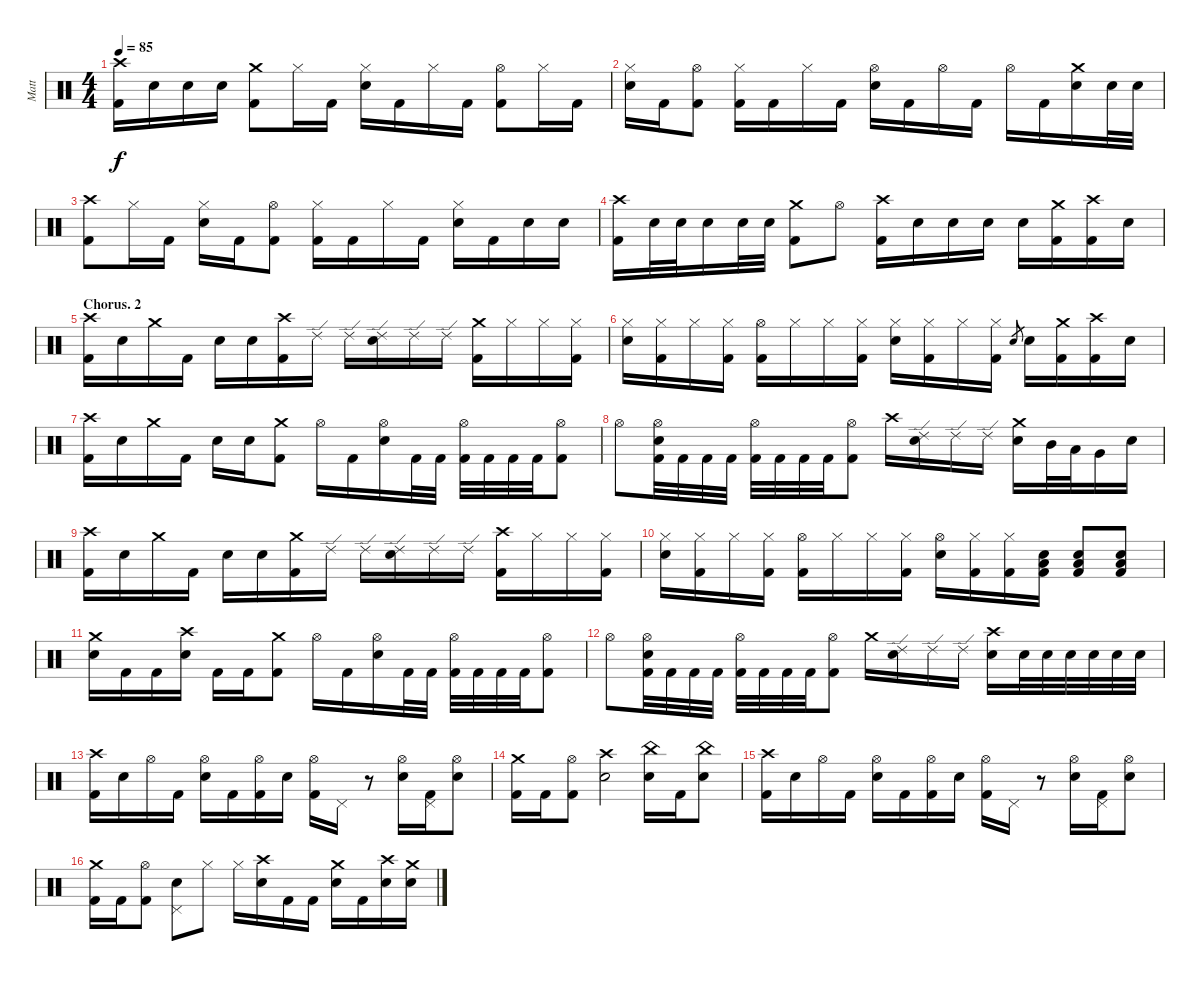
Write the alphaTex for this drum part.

\track ("Matt" "Matt") {instrument percussion}
\staff {score}
\articulation defaults
\ts (4 4)
\tempo 85
\clef neutral
\ks c
("Crash high (hit)" "Kick (hit) 2").16{dy f} "Electric Snare (hit)".16 "Electric Snare (hit)".16 "Electric Snare (hit)".16 ("Crash medium (hit)" "Kick (hit) 2").8 "Hi-Hat (closed)".16 "Kick (hit) 2".16 ("Hi-Hat (closed)" "Electric Snare (hit)").16 "Kick (hit) 2".16 "Hi-Hat (closed)".16 "Kick (hit) 2".16 ("Hi-Hat (open)" "Kick (hit) 2").8 "Hi-Hat (closed)".16 "Kick (hit) 2".16 |
("Hi-Hat (closed)" "Electric Snare (hit)").16 "Kick (hit) 2".16 ("Hi-Hat (open)" "Kick (hit) 2").8 ("Hi-Hat (closed)" "Kick (hit) 2").16 "Kick (hit) 2".16 "Hi-Hat (closed)".16 "Kick (hit) 2".16 ("Hi-Hat (open)" "Electric Snare (hit)").16 "Kick (hit) 2".16 "Hi-Hat (open)".16 "Kick (hit) 2".16 "Hi-Hat (open)".16 "Kick (hit) 2".16 ("Crash medium (hit)" "Electric Snare (hit)").16 "Electric Snare (hit)".32 "Electric Snare (hit)".32 |
("Crash high (hit)" "Kick (hit) 2").8 "Hi-Hat (closed)".16 "Kick (hit) 2".16 ("Hi-Hat (closed)" "Electric Snare (hit)").16 "Kick (hit) 2".16 ("Hi-Hat (open)" "Kick (hit) 2").8 ("Hi-Hat (closed)" "Kick (hit) 2").16 "Kick (hit) 2".16 "Hi-Hat (closed)".16 "Kick (hit) 2".16 ("Hi-Hat (closed)" "Electric Snare (hit)").16 "Kick (hit) 2".16 "Electric Snare (hit)".16 "Electric Snare (hit)".16 |
("Crash high (hit)" "Kick (hit) 2").16 "Electric Snare (hit)".32 "Electric Snare (hit)".32 "Electric Snare (hit)".16 "Electric Snare (hit)".32 "Electric Snare (hit)".32 ("Crash medium (hit)" "Kick (hit) 2").8 "Hi-Hat (open)".8 ("Crash high (hit)" "Kick (hit) 2").16 "Electric Snare (hit)".16 "Electric Snare (hit)".16 "Electric Snare (hit)".16 "Electric Snare (hit)".16 ("Crash medium (hit)" "Kick (hit) 2").16 ("Crash high (hit)" "Kick (hit) 2").16 "Electric Snare (hit)".16 |
\section ("" "Chorus. 2")
("Crash high (hit)" "Kick (hit) 2").16 "Electric Snare (hit)".16 "Crash medium (hit)".16 "Kick (hit) 2".16 "Electric Snare (hit)".16 "Electric Snare (hit)".16 ("Crash high (hit)" "Kick (hit) 2").16 "Ride (edge) 2".16 "Ride (edge) 2".16 ("Ride (edge) 2" "Electric Snare (hit)").16 "Ride (edge) 2".16 "Ride (edge) 2".16 ("Crash medium (hit)" "Kick (hit) 2").16 "Hi-Hat (closed)".16 "Hi-Hat (closed)".16 ("Hi-Hat (closed)" "Kick (hit) 2").16 |
("Hi-Hat (closed)" "Electric Snare (hit)").16 ("Hi-Hat (closed)" "Kick (hit) 2").16 "Hi-Hat (closed)".16 ("Hi-Hat (closed)" "Kick (hit) 2").16 ("Hi-Hat (open)" "Kick (hit) 2").16 "Hi-Hat (closed)".16 "Hi-Hat (closed)".16 ("Hi-Hat (closed)" "Kick (hit) 2").16 ("Hi-Hat (closed)" "Electric Snare (hit)").16 ("Hi-Hat (closed)" "Kick (hit) 2").16 "Hi-Hat (closed)".16 ("Hi-Hat (closed)" "Kick (hit) 2").16 "Electric Snare (hit)".8{gr} "Electric Snare (hit)".16 ("Crash medium (hit)" "Kick (hit) 2").16 ("Crash high (hit)" "Kick (hit) 2").16 "Electric Snare (hit)".16 |
("Crash high (hit)" "Kick (hit) 2").16 "Electric Snare (hit)".16 "Crash medium (hit)".16 "Kick (hit) 2".16 "Electric Snare (hit)".16 "Electric Snare (hit)".16 ("Crash medium (hit)" "Kick (hit) 2").8 "Hi-Hat (open)".16 "Kick (hit) 2".16 ("Hi-Hat (open)" "Electric Snare (hit)").16 "Kick (hit) 2".32 "Kick (hit) 2".32 ("Hi-Hat (open)" "Kick (hit) 2").32 "Kick (hit) 2".32 "Kick (hit) 2".32 "Kick (hit) 2".32 ("Hi-Hat (open)" "Kick (hit) 2").8 |
"Hi-Hat (open)".8 ("Hi-Hat (open)" "Electric Snare (hit)" "Kick (hit) 2").32 "Kick (hit) 2".32 "Kick (hit) 2".32 "Kick (hit) 2".32 ("Hi-Hat (open)" "Kick (hit) 2").32 "Kick (hit) 2".32 "Kick (hit) 2".32 "Kick (hit) 2".32 ("Hi-Hat (open)" "Kick (hit) 2").8 "Crash high (hit)".16 ("Ride (edge) 2" "Electric Snare (hit)").16 "Ride (edge) 2".16 "Ride (edge) 2".16 ("Crash medium (hit)" "Electric Snare (hit)").16 "Mid Tom (hit)".32 "Low Tom (hit)".32 "Very Low Tom (hit)".16 "Electric Snare (hit)".16 |
("Crash high (hit)" "Kick (hit) 2").16 "Electric Snare (hit)".16 "Crash medium (hit)".16 "Kick (hit) 2".16 "Electric Snare (hit)".16 "Electric Snare (hit)".16 ("Crash medium (hit)" "Kick (hit) 2").16 "Ride (edge) 2".16 "Ride (edge) 2".16 ("Ride (edge) 2" "Electric Snare (hit)").16 "Ride (edge) 2".16 "Ride (edge) 2".16 ("Crash high (hit)" "Kick (hit) 2").16 "Hi-Hat (closed)".16 "Hi-Hat (closed)".16 ("Hi-Hat (closed)" "Kick (hit) 2").16 |
("Hi-Hat (closed)" "Electric Snare (hit)").16 ("Hi-Hat (closed)" "Kick (hit) 2").16 "Hi-Hat (closed)".16 ("Hi-Hat (closed)" "Kick (hit) 2").16 ("Hi-Hat (open)" "Kick (hit) 2").16 "Hi-Hat (closed)".16 "Hi-Hat (closed)".16 ("Hi-Hat (closed)" "Kick (hit) 2").16 ("Hi-Hat (open)" "Electric Snare (hit)").16 ("Hi-Hat (closed)" "Kick (hit) 2").16 ("Hi-Hat (closed)" "Kick (hit) 2").16 ("Electric Snare (hit)" "Low Tom (hit)" "Kick (hit) 2").16 ("Electric Snare (hit)" "Low Tom (hit)" "Kick (hit) 2").8 ("Electric Snare (hit)" "Low Tom (hit)" "Kick (hit) 2").8 |
("Crash medium (hit)" "Electric Snare (hit)").16 "Kick (hit) 2".16 "Kick (hit) 2".16 ("Crash high (hit)" "Electric Snare (hit)").16 "Kick (hit) 2".16 "Kick (hit) 2".16 ("Crash medium (hit)" "Kick (hit) 2").8 "Hi-Hat (open)".16 "Kick (hit) 2".16 ("Hi-Hat (open)" "Electric Snare (hit)").16 "Kick (hit) 2".32 "Kick (hit) 2".32 ("Hi-Hat (open)" "Kick (hit) 2").32 "Kick (hit) 2".32 "Kick (hit) 2".32 "Kick (hit) 2".32 ("Hi-Hat (open)" "Kick (hit) 2").8 |
"Hi-Hat (open)".8 ("Hi-Hat (open)" "Electric Snare (hit)" "Kick (hit) 2").32 "Kick (hit) 2".32 "Kick (hit) 2".32 "Kick (hit) 2".32 ("Hi-Hat (open)" "Kick (hit) 2").32 "Kick (hit) 2".32 "Kick (hit) 2".32 "Kick (hit) 2".32 ("Hi-Hat (open)" "Kick (hit) 2").8 "Crash medium (hit)".16 ("Ride (edge) 2" "Electric Snare (hit)").16 "Ride (edge) 2".16 "Ride (edge) 2".16 ("Crash high (hit)" "Electric Snare (hit)").16 "Electric Snare (hit)".32 "Electric Snare (hit)".32 "Electric Snare (hit)".32 "Electric Snare (hit)".32 "Electric Snare (hit)".32 "Electric Snare (hit)".32 |
("Crash high (hit)" "Kick (hit) 2").16 "Electric Snare (hit)".16 "Hi-Hat (open)".16 "Kick (hit) 2".16 ("Hi-Hat (open)" "Electric Snare (hit)").16 "Kick (hit) 2".16 ("Hi-Hat (open)" "Kick (hit) 2").16 "Electric Snare (hit)".16 ("Hi-Hat (open)" "Kick (hit) 2").16 "Pedal Hi-Hat (hit)".16 r.8 ("Hi-Hat (open)" "Electric Snare (hit)").16 ("Pedal Hi-Hat (hit)" "Kick (hit) 2").16 ("Hi-Hat (open)" "Electric Snare (hit)").8 |
("Crash medium (hit)" "Kick (hit) 2").16 "Kick (hit) 2".16 ("Hi-Hat (open)" "Kick (hit) 2").8 ("Crash high (hit)" "Electric Snare (hit)").2 ("China (hit)" "Electric Snare (hit)").16 "Kick (hit) 2".16 ("China (hit)" "Electric Snare (hit)").8 |
("Crash high (hit)" "Kick (hit) 2").16 "Electric Snare (hit)".16 "Hi-Hat (open)".16 "Kick (hit) 2".16 ("Hi-Hat (open)" "Electric Snare (hit)").16 "Kick (hit) 2".16 ("Hi-Hat (open)" "Kick (hit) 2").16 "Electric Snare (hit)".16 ("Hi-Hat (open)" "Kick (hit) 2").16 "Pedal Hi-Hat (hit)".16 r.8 ("Hi-Hat (open)" "Electric Snare (hit)").16 ("Pedal Hi-Hat (hit)" "Kick (hit) 2").16 ("Hi-Hat (open)" "Electric Snare (hit)").8 |
("Crash medium (hit)" "Kick (hit) 2").16 "Kick (hit) 2".16 ("Hi-Hat (open)" "Kick (hit) 2").8 ("Pedal Hi-Hat (hit)" "Electric Snare (hit)").8 "Hi-Hat (closed)".8 "Hi-Hat (closed)".16 ("Crash high (hit)" "Electric Snare (hit)").16 "Kick (hit) 2".16 "Kick (hit) 2".16 ("Crash medium (hit)" "Electric Snare (hit)").16 "Kick (hit) 2".16 ("Crash high (hit)" "Electric Snare (hit)").16 ("Crash medium (hit)" "Electric Snare (hit)").16
